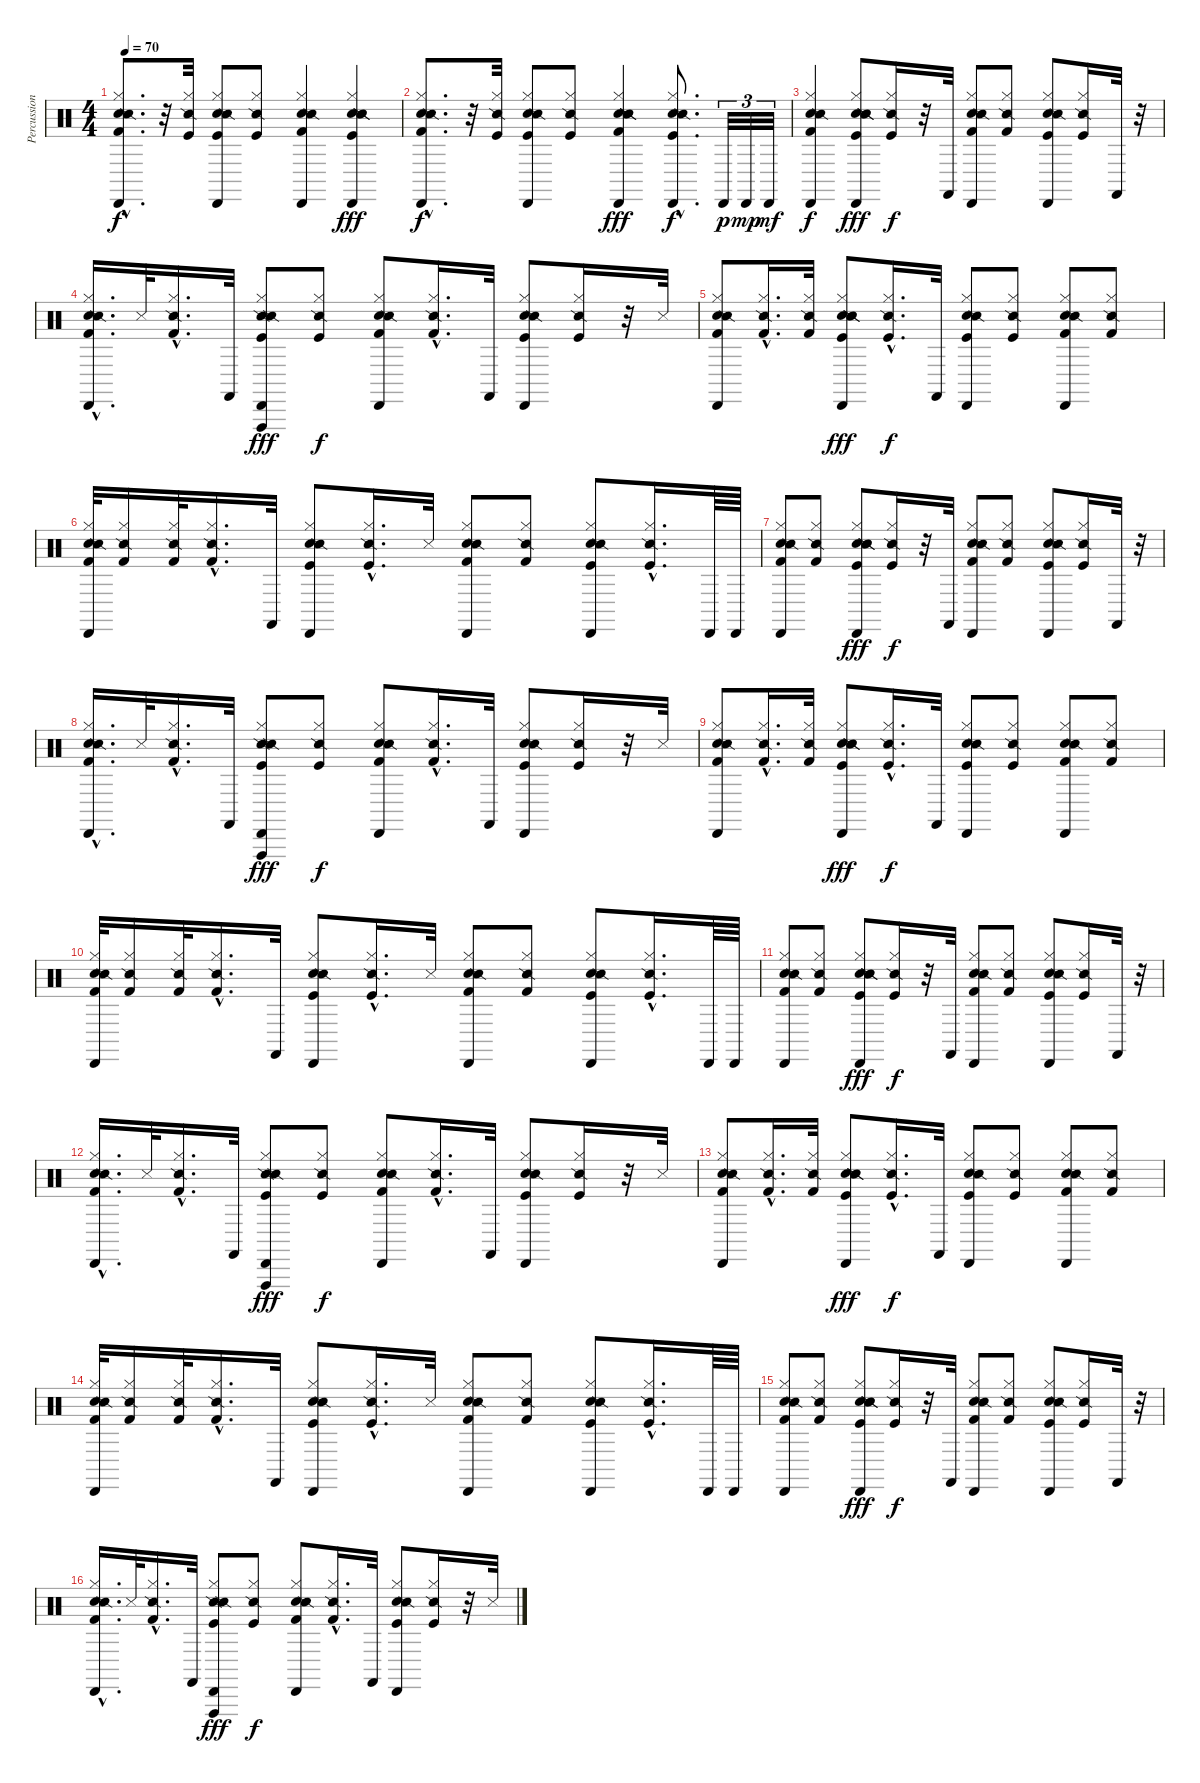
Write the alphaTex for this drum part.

\track ("Percussion" "Percussion") {instrument percussion}
\staff {score}
\articulation defaults
\ts (4 4)
\tempo 70
\clef neutral
\ks c
("Cabasa (hit)"{hac} "Electric Snare (hit)"{hac} "Snare (side stick) 2"{hac} "Hi-Hat (closed)"{hac} "Kick (hit) 2"{hac}).8{d dy f} r.32 ("Snare (side stick) 2" "Hi-Hat (closed)" "Kick (hit)").32 ("Cabasa (hit)" "Snare (hit) 2" "Snare (side stick) 2" "Hi-Hat (closed)" "Kick (hit)").8 ("Snare (side stick) 2" "Hi-Hat (closed)" "Kick (hit)").8 ("Cabasa (hit)" "Electric Snare (hit)" "Snare (side stick) 2" "Hi-Hat (closed)" "Kick (hit) 2").4 ("Cabasa (hit)" "Snare (hit) 2" "Snare (side stick) 2" "Hi-Hat (closed)" "Kick (hit)" "Snare (side stick) 2").4{dy fff} |
("Cabasa (hit)"{hac} "Electric Snare (hit)"{hac} "Snare (side stick) 2"{hac} "Hi-Hat (closed)"{hac} "Kick (hit) 2"{hac}).8{d dy f} r.32 ("Snare (side stick) 2" "Hi-Hat (closed)" "Kick (hit)").32 ("Cabasa (hit)" "Snare (hit) 2" "Snare (side stick) 2" "Hi-Hat (closed)" "Kick (hit)").8 ("Snare (side stick) 2" "Hi-Hat (closed)" "Kick (hit)").8 ("Cabasa (hit)" "Electric Snare (hit)" "Snare (side stick) 2" "Hi-Hat (closed)" "Kick (hit) 2" "Snare (side stick) 2").4{dy fff} ("Cabasa (hit)"{hac} "Snare (hit) 2"{hac} "Snare (side stick) 2"{hac} "Hi-Hat (closed)"{hac} "Kick (hit)"{hac}).8{d dy f} "Cabasa (hit)".32{tu (3 2) dy p} "Cabasa (hit)".32{tu (3 2) dy mp} "Cabasa (hit)".32{tu (3 2) dy mf} |
("Cabasa (hit)" "Electric Snare (hit)" "Snare (side stick) 2" "Hi-Hat (closed)" "Kick (hit) 2").4{dy f} ("Cabasa (hit)" "Snare (hit) 2" "Snare (side stick) 2" "Hi-Hat (closed)" "Kick (hit)" "Snare (side stick) 2").8{dy fff} ("Snare (side stick) 2" "Hi-Hat (closed)" "Kick (hit)").16{dy f} r.32 "Castanets (hit)".32 ("Cabasa (hit)" "Electric Snare (hit)" "Snare (side stick) 2" "Hi-Hat (closed)" "Kick (hit) 2").8 ("Snare (side stick) 2" "Hi-Hat (closed)" "Kick (hit) 2").8 ("Cabasa (hit)" "Snare (hit) 2" "Snare (side stick) 2" "Hi-Hat (closed)" "Kick (hit)").8 ("Snare (side stick) 2" "Hi-Hat (closed)" "Kick (hit)").16 "Castanets (hit)".32 r.32 |
("Cabasa (hit)"{hac} "Electric Snare (hit)"{hac} "Snare (side stick) 2"{hac} "Hi-Hat (closed)"{hac} "Kick (hit) 2"{hac}).16{d} "Metronome (hit)".32 ("Snare (side stick) 2"{hac} "Hi-Hat (closed)"{hac} "Kick (hit) 2"{hac}).16{d} "Castanets (hit)".32 ("Cabasa (hit)" "Vibraslap (hit)" "Snare (side stick) 2" "Hi-Hat (closed)" "Kick (hit)" "Snare (side stick) 2").8{dy fff} ("Snare (side stick) 2" "Hi-Hat (closed)" "Kick (hit)").8{dy f} ("Cabasa (hit)" "Electric Snare (hit)" "Snare (side stick) 2" "Hi-Hat (closed)" "Kick (hit) 2").8 ("Snare (side stick) 2"{hac} "Hi-Hat (closed)"{hac} "Kick (hit) 2"{hac}).16{d} "Castanets (hit)".32 ("Cabasa (hit)" "Snare (hit) 2" "Snare (side stick) 2" "Hi-Hat (closed)" "Kick (hit)").8 ("Snare (side stick) 2" "Hi-Hat (closed)" "Kick (hit)").16 r.32 "Metronome (hit)".32 |
("Cabasa (hit)" "Electric Snare (hit)" "Snare (side stick) 2" "Hi-Hat (closed)" "Kick (hit) 2").8 ("Snare (side stick) 2"{hac} "Hi-Hat (closed)"{hac} "Kick (hit) 2"{hac}).16{d} ("Snare (side stick) 2" "Hi-Hat (closed)" "Kick (hit) 2").32 ("Cabasa (hit)" "Electric Snare (hit)" "Snare (side stick) 2" "Hi-Hat (closed)" "Kick (hit)" "Snare (side stick) 2").8{dy fff} ("Snare (side stick) 2"{hac} "Hi-Hat (closed)"{hac} "Kick (hit)"{hac}).16{d dy f} "Castanets (hit)".32 ("Cabasa (hit)" "Electric Snare (hit)" "Snare (side stick) 2" "Hi-Hat (closed)" "Kick (hit)").8 ("Snare (side stick) 2" "Hi-Hat (closed)" "Kick (hit)").8 ("Cabasa (hit)" "Electric Snare (hit)" "Snare (side stick) 2" "Hi-Hat (closed)" "Kick (hit) 2").8 ("Snare (side stick) 2" "Hi-Hat (closed)" "Kick (hit) 2").8 |
("Cabasa (hit)" "Electric Snare (hit)" "Snare (side stick) 2" "Hi-Hat (closed)" "Kick (hit) 2").32 ("Snare (side stick) 2" "Hi-Hat (closed)" "Kick (hit) 2").16 ("Snare (side stick) 2" "Hi-Hat (closed)" "Kick (hit) 2").32 ("Snare (side stick) 2"{hac} "Hi-Hat (closed)"{hac} "Kick (hit) 2"{hac}).16{d} "Castanets (hit)".32 ("Cabasa (hit)" "Electric Snare (hit)" "Snare (side stick) 2" "Hi-Hat (closed)" "Kick (hit)").8 ("Snare (side stick) 2"{hac} "Hi-Hat (closed)"{hac} "Kick (hit)"{hac}).16{d} "Metronome (hit)".32 ("Cabasa (hit)" "Electric Snare (hit)" "Snare (side stick) 2" "Hi-Hat (closed)" "Kick (hit) 2").8 ("Snare (side stick) 2" "Hi-Hat (closed)" "Kick (hit) 2").8 ("Cabasa (hit)" "Electric Snare (hit)" "Snare (side stick) 2" "Hi-Hat (closed)" "Kick (hit)").8 ("Snare (side stick) 2"{hac} "Hi-Hat (closed)"{hac} "Kick (hit)"{hac}).16{d} "Cabasa (hit)".64 "Cabasa (hit)".64 |
("Cabasa (hit)" "Electric Snare (hit)" "Snare (side stick) 2" "Hi-Hat (closed)" "Kick (hit) 2").8 ("Snare (side stick) 2" "Hi-Hat (closed)" "Kick (hit) 2").8 ("Cabasa (hit)" "Snare (hit) 2" "Snare (side stick) 2" "Hi-Hat (closed)" "Kick (hit)" "Snare (side stick) 2").8{dy fff} ("Snare (side stick) 2" "Hi-Hat (closed)" "Kick (hit)").16{dy f} r.32 "Castanets (hit)".32 ("Cabasa (hit)" "Electric Snare (hit)" "Snare (side stick) 2" "Hi-Hat (closed)" "Kick (hit) 2").8 ("Snare (side stick) 2" "Hi-Hat (closed)" "Kick (hit) 2").8 ("Cabasa (hit)" "Snare (hit) 2" "Snare (side stick) 2" "Hi-Hat (closed)" "Kick (hit)").8 ("Snare (side stick) 2" "Hi-Hat (closed)" "Kick (hit)").16 "Castanets (hit)".32 r.32 |
("Cabasa (hit)"{hac} "Electric Snare (hit)"{hac} "Snare (side stick) 2"{hac} "Hi-Hat (closed)"{hac} "Kick (hit) 2"{hac}).16{d} "Metronome (hit)".32 ("Snare (side stick) 2"{hac} "Hi-Hat (closed)"{hac} "Kick (hit) 2"{hac}).16{d} "Castanets (hit)".32 ("Cabasa (hit)" "Vibraslap (hit)" "Snare (side stick) 2" "Hi-Hat (closed)" "Kick (hit)" "Snare (side stick) 2").8{dy fff} ("Snare (side stick) 2" "Hi-Hat (closed)" "Kick (hit)").8{dy f} ("Cabasa (hit)" "Electric Snare (hit)" "Snare (side stick) 2" "Hi-Hat (closed)" "Kick (hit) 2").8 ("Snare (side stick) 2"{hac} "Hi-Hat (closed)"{hac} "Kick (hit) 2"{hac}).16{d} "Castanets (hit)".32 ("Cabasa (hit)" "Snare (hit) 2" "Snare (side stick) 2" "Hi-Hat (closed)" "Kick (hit)").8 ("Snare (side stick) 2" "Hi-Hat (closed)" "Kick (hit)").16 r.32 "Metronome (hit)".32 |
("Cabasa (hit)" "Electric Snare (hit)" "Snare (side stick) 2" "Hi-Hat (closed)" "Kick (hit) 2").8 ("Snare (side stick) 2"{hac} "Hi-Hat (closed)"{hac} "Kick (hit) 2"{hac}).16{d} ("Snare (side stick) 2" "Hi-Hat (closed)" "Kick (hit) 2").32 ("Cabasa (hit)" "Electric Snare (hit)" "Snare (side stick) 2" "Hi-Hat (closed)" "Kick (hit)" "Snare (side stick) 2").8{dy fff} ("Snare (side stick) 2"{hac} "Hi-Hat (closed)"{hac} "Kick (hit)"{hac}).16{d dy f} "Castanets (hit)".32 ("Cabasa (hit)" "Electric Snare (hit)" "Snare (side stick) 2" "Hi-Hat (closed)" "Kick (hit)").8 ("Snare (side stick) 2" "Hi-Hat (closed)" "Kick (hit)").8 ("Cabasa (hit)" "Electric Snare (hit)" "Snare (side stick) 2" "Hi-Hat (closed)" "Kick (hit) 2").8 ("Snare (side stick) 2" "Hi-Hat (closed)" "Kick (hit) 2").8 |
("Cabasa (hit)" "Electric Snare (hit)" "Snare (side stick) 2" "Hi-Hat (closed)" "Kick (hit) 2").32 ("Snare (side stick) 2" "Hi-Hat (closed)" "Kick (hit) 2").16 ("Snare (side stick) 2" "Hi-Hat (closed)" "Kick (hit) 2").32 ("Snare (side stick) 2"{hac} "Hi-Hat (closed)"{hac} "Kick (hit) 2"{hac}).16{d} "Castanets (hit)".32 ("Cabasa (hit)" "Electric Snare (hit)" "Snare (side stick) 2" "Hi-Hat (closed)" "Kick (hit)").8 ("Snare (side stick) 2"{hac} "Hi-Hat (closed)"{hac} "Kick (hit)"{hac}).16{d} "Metronome (hit)".32 ("Cabasa (hit)" "Electric Snare (hit)" "Snare (side stick) 2" "Hi-Hat (closed)" "Kick (hit) 2").8 ("Snare (side stick) 2" "Hi-Hat (closed)" "Kick (hit) 2").8 ("Cabasa (hit)" "Electric Snare (hit)" "Snare (side stick) 2" "Hi-Hat (closed)" "Kick (hit)").8 ("Snare (side stick) 2"{hac} "Hi-Hat (closed)"{hac} "Kick (hit)"{hac}).16{d} "Cabasa (hit)".64 "Cabasa (hit)".64 |
\section ("" "")
("Cabasa (hit)" "Electric Snare (hit)" "Snare (side stick) 2" "Hi-Hat (closed)" "Kick (hit) 2").8 ("Snare (side stick) 2" "Hi-Hat (closed)" "Kick (hit) 2").8 ("Cabasa (hit)" "Snare (hit) 2" "Snare (side stick) 2" "Hi-Hat (closed)" "Kick (hit)" "Snare (side stick) 2").8{dy fff} ("Snare (side stick) 2" "Hi-Hat (closed)" "Kick (hit)").16{dy f} r.32 "Castanets (hit)".32 ("Cabasa (hit)" "Electric Snare (hit)" "Snare (side stick) 2" "Hi-Hat (closed)" "Kick (hit) 2").8 ("Snare (side stick) 2" "Hi-Hat (closed)" "Kick (hit) 2").8 ("Cabasa (hit)" "Snare (hit) 2" "Snare (side stick) 2" "Hi-Hat (closed)" "Kick (hit)").8 ("Snare (side stick) 2" "Hi-Hat (closed)" "Kick (hit)").16 "Castanets (hit)".32 r.32 |
("Cabasa (hit)"{hac} "Electric Snare (hit)"{hac} "Snare (side stick) 2"{hac} "Hi-Hat (closed)"{hac} "Kick (hit) 2"{hac}).16{d} "Metronome (hit)".32 ("Snare (side stick) 2"{hac} "Hi-Hat (closed)"{hac} "Kick (hit) 2"{hac}).16{d} "Castanets (hit)".32 ("Cabasa (hit)" "Vibraslap (hit)" "Snare (side stick) 2" "Hi-Hat (closed)" "Kick (hit)" "Snare (side stick) 2").8{dy fff} ("Snare (side stick) 2" "Hi-Hat (closed)" "Kick (hit)").8{dy f} ("Cabasa (hit)" "Electric Snare (hit)" "Snare (side stick) 2" "Hi-Hat (closed)" "Kick (hit) 2").8 ("Snare (side stick) 2"{hac} "Hi-Hat (closed)"{hac} "Kick (hit) 2"{hac}).16{d} "Castanets (hit)".32 ("Cabasa (hit)" "Snare (hit) 2" "Snare (side stick) 2" "Hi-Hat (closed)" "Kick (hit)").8 ("Snare (side stick) 2" "Hi-Hat (closed)" "Kick (hit)").16 r.32 "Metronome (hit)".32 |
("Cabasa (hit)" "Electric Snare (hit)" "Snare (side stick) 2" "Hi-Hat (closed)" "Kick (hit) 2").8 ("Snare (side stick) 2"{hac} "Hi-Hat (closed)"{hac} "Kick (hit) 2"{hac}).16{d} ("Snare (side stick) 2" "Hi-Hat (closed)" "Kick (hit) 2").32 ("Cabasa (hit)" "Electric Snare (hit)" "Snare (side stick) 2" "Hi-Hat (closed)" "Kick (hit)" "Snare (side stick) 2").8{dy fff} ("Snare (side stick) 2"{hac} "Hi-Hat (closed)"{hac} "Kick (hit)"{hac}).16{d dy f} "Castanets (hit)".32 ("Cabasa (hit)" "Electric Snare (hit)" "Snare (side stick) 2" "Hi-Hat (closed)" "Kick (hit)").8 ("Snare (side stick) 2" "Hi-Hat (closed)" "Kick (hit)").8 ("Cabasa (hit)" "Electric Snare (hit)" "Snare (side stick) 2" "Hi-Hat (closed)" "Kick (hit) 2").8 ("Snare (side stick) 2" "Hi-Hat (closed)" "Kick (hit) 2").8 |
("Cabasa (hit)" "Electric Snare (hit)" "Snare (side stick) 2" "Hi-Hat (closed)" "Kick (hit) 2").32 ("Snare (side stick) 2" "Hi-Hat (closed)" "Kick (hit) 2").16 ("Snare (side stick) 2" "Hi-Hat (closed)" "Kick (hit) 2").32 ("Snare (side stick) 2"{hac} "Hi-Hat (closed)"{hac} "Kick (hit) 2"{hac}).16{d} "Castanets (hit)".32 ("Cabasa (hit)" "Electric Snare (hit)" "Snare (side stick) 2" "Hi-Hat (closed)" "Kick (hit)").8 ("Snare (side stick) 2"{hac} "Hi-Hat (closed)"{hac} "Kick (hit)"{hac}).16{d} "Metronome (hit)".32 ("Cabasa (hit)" "Electric Snare (hit)" "Snare (side stick) 2" "Hi-Hat (closed)" "Kick (hit) 2").8 ("Snare (side stick) 2" "Hi-Hat (closed)" "Kick (hit) 2").8 ("Cabasa (hit)" "Electric Snare (hit)" "Snare (side stick) 2" "Hi-Hat (closed)" "Kick (hit)").8 ("Snare (side stick) 2"{hac} "Hi-Hat (closed)"{hac} "Kick (hit)"{hac}).16{d} "Cabasa (hit)".64 "Cabasa (hit)".64 |
("Cabasa (hit)" "Electric Snare (hit)" "Snare (side stick) 2" "Hi-Hat (closed)" "Kick (hit) 2").8 ("Snare (side stick) 2" "Hi-Hat (closed)" "Kick (hit) 2").8 ("Cabasa (hit)" "Snare (hit) 2" "Snare (side stick) 2" "Hi-Hat (closed)" "Kick (hit)" "Snare (side stick) 2").8{dy fff} ("Snare (side stick) 2" "Hi-Hat (closed)" "Kick (hit)").16{dy f} r.32 "Castanets (hit)".32 ("Cabasa (hit)" "Electric Snare (hit)" "Snare (side stick) 2" "Hi-Hat (closed)" "Kick (hit) 2").8 ("Snare (side stick) 2" "Hi-Hat (closed)" "Kick (hit) 2").8 ("Cabasa (hit)" "Snare (hit) 2" "Snare (side stick) 2" "Hi-Hat (closed)" "Kick (hit)").8 ("Snare (side stick) 2" "Hi-Hat (closed)" "Kick (hit)").16 "Castanets (hit)".32 r.32 |
("Cabasa (hit)"{hac} "Electric Snare (hit)"{hac} "Snare (side stick) 2"{hac} "Hi-Hat (closed)"{hac} "Kick (hit) 2"{hac}).16{d} "Metronome (hit)".32 ("Snare (side stick) 2"{hac} "Hi-Hat (closed)"{hac} "Kick (hit) 2"{hac}).16{d} "Castanets (hit)".32 ("Cabasa (hit)" "Vibraslap (hit)" "Snare (side stick) 2" "Hi-Hat (closed)" "Kick (hit)" "Snare (side stick) 2").8{dy fff} ("Snare (side stick) 2" "Hi-Hat (closed)" "Kick (hit)").8{dy f} ("Cabasa (hit)" "Electric Snare (hit)" "Snare (side stick) 2" "Hi-Hat (closed)" "Kick (hit) 2").8 ("Snare (side stick) 2"{hac} "Hi-Hat (closed)"{hac} "Kick (hit) 2"{hac}).16{d} "Castanets (hit)".32 ("Cabasa (hit)" "Snare (hit) 2" "Snare (side stick) 2" "Hi-Hat (closed)" "Kick (hit)").8 ("Snare (side stick) 2" "Hi-Hat (closed)" "Kick (hit)").16 r.32 "Metronome (hit)".32
